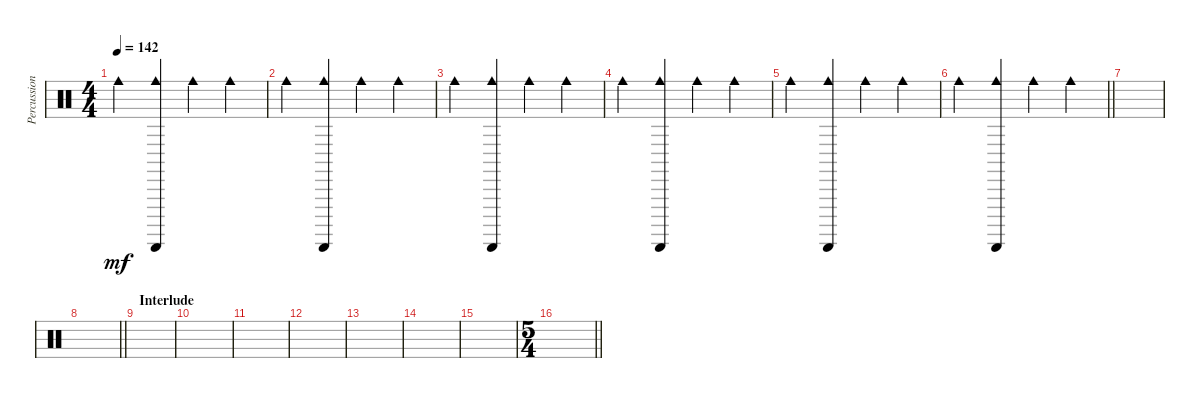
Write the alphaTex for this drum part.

\track ("Percussion" "Percussion") {instrument percussion}
\staff {score}
\articulation defaults
\ts (4 4)
\tempo 142
\clef neutral
\ks c "Cowbell medium (hit)".4{dy mf}
("Guiro (scrap-return)" "Cowbell medium (hit)").4 "Cowbell medium (hit)".4 "Cowbell medium (hit)".4 |
"Cowbell medium (hit)".4 ("Guiro (scrap-return)" "Cowbell medium (hit)").4 "Cowbell medium (hit)".4 "Cowbell medium (hit)".4 |
"Cowbell medium (hit)".4 ("Guiro (scrap-return)" "Cowbell medium (hit)").4 "Cowbell medium (hit)".4 "Cowbell medium (hit)".4 |
"Cowbell medium (hit)".4 ("Guiro (scrap-return)" "Cowbell medium (hit)").4 "Cowbell medium (hit)".4 "Cowbell medium (hit)".4 |
"Cowbell medium (hit)".4 ("Guiro (scrap-return)" "Cowbell medium (hit)").4 "Cowbell medium (hit)".4 "Cowbell medium (hit)".4 |
\barLineRight lightlight "Cowbell medium (hit)".4
("Guiro (scrap-return)" "Cowbell medium (hit)").4 "Cowbell medium (hit)".4 "Cowbell medium (hit)".4 |
|
\barLineRight lightlight
|
\section ("" "Interlude")
|
|
|
|
|
|
|
\ts (5 4)
\barLineRight lightlight
